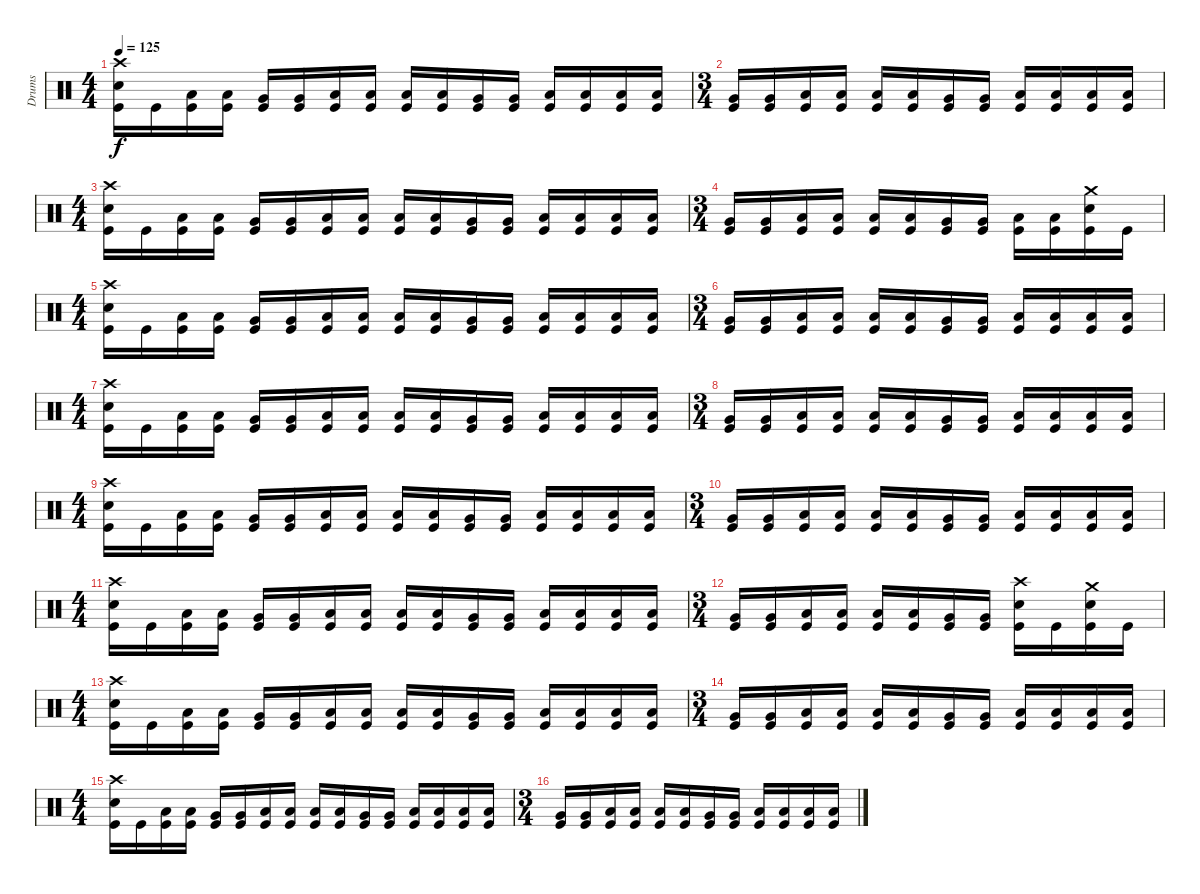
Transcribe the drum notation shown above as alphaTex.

\track ("Drums" "Drums") {instrument percussion}
\staff {score}
\articulation defaults
\ts (4 4)
\tempo 125
\clef neutral
\ks c
("Crash high (hit)" "Electric Snare (hit)" "Kick (hit)").16{dy f} "Kick (hit)".16 ("Low Tom (hit)" "Kick (hit)").16 ("Low Tom (hit)" "Kick (hit)").16 ("Very Low Tom (hit)" "Kick (hit)").16 ("Very Low Tom (hit)" "Kick (hit)").16 ("Low Floor Tom (hit)" "Kick (hit)").16 ("Low Floor Tom (hit)" "Kick (hit)").16 ("Low Tom (hit)" "Kick (hit)").16 ("Low Tom (hit)" "Kick (hit)").16 ("Very Low Tom (hit)" "Kick (hit)").16 ("Very Low Tom (hit)" "Kick (hit)").16 ("Low Floor Tom (hit)" "Kick (hit)").16 ("Low Floor Tom (hit)" "Kick (hit)").16 ("Low Tom (hit)" "Kick (hit)").16 ("Low Tom (hit)" "Kick (hit)").16 |
\ts (3 4)
("Very Low Tom (hit)" "Kick (hit)").16 ("Very Low Tom (hit)" "Kick (hit)").16 ("Low Floor Tom (hit)" "Kick (hit)").16 ("Low Floor Tom (hit)" "Kick (hit)").16 ("Low Tom (hit)" "Kick (hit)").16 ("Low Tom (hit)" "Kick (hit)").16 ("Very Low Tom (hit)" "Kick (hit)").16 ("Very Low Tom (hit)" "Kick (hit)").16 ("Low Floor Tom (hit)" "Kick (hit)").16 ("Low Floor Tom (hit)" "Kick (hit)").16 ("Low Floor Tom (hit)" "Kick (hit)").16 ("Low Floor Tom (hit)" "Kick (hit)").16 |
\ts (4 4)
("Crash high (hit)" "Electric Snare (hit)" "Kick (hit)").16 "Kick (hit)".16 ("Low Tom (hit)" "Kick (hit)").16 ("Low Tom (hit)" "Kick (hit)").16 ("Very Low Tom (hit)" "Kick (hit)").16 ("Very Low Tom (hit)" "Kick (hit)").16 ("Low Floor Tom (hit)" "Kick (hit)").16 ("Low Floor Tom (hit)" "Kick (hit)").16 ("Low Tom (hit)" "Kick (hit)").16 ("Low Tom (hit)" "Kick (hit)").16 ("Very Low Tom (hit)" "Kick (hit)").16 ("Very Low Tom (hit)" "Kick (hit)").16 ("Low Floor Tom (hit)" "Kick (hit)").16 ("Low Floor Tom (hit)" "Kick (hit)").16 ("Low Tom (hit)" "Kick (hit)").16 ("Low Tom (hit)" "Kick (hit)").16 |
\ts (3 4)
("Very Low Tom (hit)" "Kick (hit)").16 ("Very Low Tom (hit)" "Kick (hit)").16 ("Low Floor Tom (hit)" "Kick (hit)").16 ("Low Floor Tom (hit)" "Kick (hit)").16 ("Low Tom (hit)" "Kick (hit)").16 ("Low Tom (hit)" "Kick (hit)").16 ("Very Low Tom (hit)" "Kick (hit)").16 ("Very Low Tom (hit)" "Kick (hit)").16 ("Low Floor Tom (hit)" "Kick (hit)").16 ("Low Floor Tom (hit)" "Kick (hit)").16 ("Crash medium (hit)" "Electric Snare (hit)" "Kick (hit)").16 "Kick (hit)".16 |
\ts (4 4)
("Crash high (hit)" "Electric Snare (hit)" "Kick (hit)").16 "Kick (hit)".16 ("Low Tom (hit)" "Kick (hit)").16 ("Low Tom (hit)" "Kick (hit)").16 ("Very Low Tom (hit)" "Kick (hit)").16 ("Very Low Tom (hit)" "Kick (hit)").16 ("Low Floor Tom (hit)" "Kick (hit)").16 ("Low Floor Tom (hit)" "Kick (hit)").16 ("Low Tom (hit)" "Kick (hit)").16 ("Low Tom (hit)" "Kick (hit)").16 ("Very Low Tom (hit)" "Kick (hit)").16 ("Very Low Tom (hit)" "Kick (hit)").16 ("Low Floor Tom (hit)" "Kick (hit)").16 ("Low Floor Tom (hit)" "Kick (hit)").16 ("Low Tom (hit)" "Kick (hit)").16 ("Low Tom (hit)" "Kick (hit)").16 |
\ts (3 4)
("Very Low Tom (hit)" "Kick (hit)").16 ("Very Low Tom (hit)" "Kick (hit)").16 ("Low Floor Tom (hit)" "Kick (hit)").16 ("Low Floor Tom (hit)" "Kick (hit)").16 ("Low Tom (hit)" "Kick (hit)").16 ("Low Tom (hit)" "Kick (hit)").16 ("Very Low Tom (hit)" "Kick (hit)").16 ("Very Low Tom (hit)" "Kick (hit)").16 ("Low Floor Tom (hit)" "Kick (hit)").16 ("Low Floor Tom (hit)" "Kick (hit)").16 ("Low Floor Tom (hit)" "Kick (hit)").16 ("Low Floor Tom (hit)" "Kick (hit)").16 |
\ts (4 4)
("Crash high (hit)" "Electric Snare (hit)" "Kick (hit)").16 "Kick (hit)".16 ("Low Tom (hit)" "Kick (hit)").16 ("Low Tom (hit)" "Kick (hit)").16 ("Very Low Tom (hit)" "Kick (hit)").16 ("Very Low Tom (hit)" "Kick (hit)").16 ("Low Floor Tom (hit)" "Kick (hit)").16 ("Low Floor Tom (hit)" "Kick (hit)").16 ("Low Tom (hit)" "Kick (hit)").16 ("Low Tom (hit)" "Kick (hit)").16 ("Very Low Tom (hit)" "Kick (hit)").16 ("Very Low Tom (hit)" "Kick (hit)").16 ("Low Floor Tom (hit)" "Kick (hit)").16 ("Low Floor Tom (hit)" "Kick (hit)").16 ("Low Tom (hit)" "Kick (hit)").16 ("Low Tom (hit)" "Kick (hit)").16 |
\ts (3 4)
("Very Low Tom (hit)" "Kick (hit)").16 ("Very Low Tom (hit)" "Kick (hit)").16 ("Low Floor Tom (hit)" "Kick (hit)").16 ("Low Floor Tom (hit)" "Kick (hit)").16 ("Low Tom (hit)" "Kick (hit)").16 ("Low Tom (hit)" "Kick (hit)").16 ("Very Low Tom (hit)" "Kick (hit)").16 ("Very Low Tom (hit)" "Kick (hit)").16 ("Low Floor Tom (hit)" "Kick (hit)").16 ("Low Floor Tom (hit)" "Kick (hit)").16 ("Low Floor Tom (hit)" "Kick (hit)").16 ("Low Floor Tom (hit)" "Kick (hit)").16 |
\ts (4 4)
("Crash high (hit)" "Electric Snare (hit)" "Kick (hit)").16 "Kick (hit)".16 ("Low Tom (hit)" "Kick (hit)").16 ("Low Tom (hit)" "Kick (hit)").16 ("Very Low Tom (hit)" "Kick (hit)").16 ("Very Low Tom (hit)" "Kick (hit)").16 ("Low Floor Tom (hit)" "Kick (hit)").16 ("Low Floor Tom (hit)" "Kick (hit)").16 ("Low Tom (hit)" "Kick (hit)").16 ("Low Tom (hit)" "Kick (hit)").16 ("Very Low Tom (hit)" "Kick (hit)").16 ("Very Low Tom (hit)" "Kick (hit)").16 ("Low Floor Tom (hit)" "Kick (hit)").16 ("Low Floor Tom (hit)" "Kick (hit)").16 ("Low Tom (hit)" "Kick (hit)").16 ("Low Tom (hit)" "Kick (hit)").16 |
\ts (3 4)
("Very Low Tom (hit)" "Kick (hit)").16 ("Very Low Tom (hit)" "Kick (hit)").16 ("Low Floor Tom (hit)" "Kick (hit)").16 ("Low Floor Tom (hit)" "Kick (hit)").16 ("Low Tom (hit)" "Kick (hit)").16 ("Low Tom (hit)" "Kick (hit)").16 ("Very Low Tom (hit)" "Kick (hit)").16 ("Very Low Tom (hit)" "Kick (hit)").16 ("Low Floor Tom (hit)" "Kick (hit)").16 ("Low Floor Tom (hit)" "Kick (hit)").16 ("Low Floor Tom (hit)" "Kick (hit)").16 ("Low Floor Tom (hit)" "Kick (hit)").16 |
\ts (4 4)
("Crash high (hit)" "Electric Snare (hit)" "Kick (hit)").16 "Kick (hit)".16 ("Low Tom (hit)" "Kick (hit)").16 ("Low Tom (hit)" "Kick (hit)").16 ("Very Low Tom (hit)" "Kick (hit)").16 ("Very Low Tom (hit)" "Kick (hit)").16 ("Low Floor Tom (hit)" "Kick (hit)").16 ("Low Floor Tom (hit)" "Kick (hit)").16 ("Low Tom (hit)" "Kick (hit)").16 ("Low Tom (hit)" "Kick (hit)").16 ("Very Low Tom (hit)" "Kick (hit)").16 ("Very Low Tom (hit)" "Kick (hit)").16 ("Low Floor Tom (hit)" "Kick (hit)").16 ("Low Floor Tom (hit)" "Kick (hit)").16 ("Low Tom (hit)" "Kick (hit)").16 ("Low Tom (hit)" "Kick (hit)").16 |
\ts (3 4)
("Very Low Tom (hit)" "Kick (hit)").16 ("Very Low Tom (hit)" "Kick (hit)").16 ("Low Floor Tom (hit)" "Kick (hit)").16 ("Low Floor Tom (hit)" "Kick (hit)").16 ("Low Tom (hit)" "Kick (hit)").16 ("Low Tom (hit)" "Kick (hit)").16 ("Very Low Tom (hit)" "Kick (hit)").16 ("Very Low Tom (hit)" "Kick (hit)").16 ("Crash high (hit)" "Electric Snare (hit)" "Kick (hit)").16 "Kick (hit)".16 ("Crash medium (hit)" "Electric Snare (hit)" "Kick (hit)").16 "Kick (hit)".16 |
\ts (4 4)
("Crash high (hit)" "Electric Snare (hit)" "Kick (hit)").16 "Kick (hit)".16 ("Low Tom (hit)" "Kick (hit)").16 ("Low Tom (hit)" "Kick (hit)").16 ("Very Low Tom (hit)" "Kick (hit)").16 ("Very Low Tom (hit)" "Kick (hit)").16 ("Low Floor Tom (hit)" "Kick (hit)").16 ("Low Floor Tom (hit)" "Kick (hit)").16 ("Low Tom (hit)" "Kick (hit)").16 ("Low Tom (hit)" "Kick (hit)").16 ("Very Low Tom (hit)" "Kick (hit)").16 ("Very Low Tom (hit)" "Kick (hit)").16 ("Low Floor Tom (hit)" "Kick (hit)").16 ("Low Floor Tom (hit)" "Kick (hit)").16 ("Low Tom (hit)" "Kick (hit)").16 ("Low Tom (hit)" "Kick (hit)").16 |
\ts (3 4)
("Very Low Tom (hit)" "Kick (hit)").16 ("Very Low Tom (hit)" "Kick (hit)").16 ("Low Floor Tom (hit)" "Kick (hit)").16 ("Low Floor Tom (hit)" "Kick (hit)").16 ("Low Tom (hit)" "Kick (hit)").16 ("Low Tom (hit)" "Kick (hit)").16 ("Very Low Tom (hit)" "Kick (hit)").16 ("Very Low Tom (hit)" "Kick (hit)").16 ("Low Floor Tom (hit)" "Kick (hit)").16 ("Low Floor Tom (hit)" "Kick (hit)").16 ("Low Floor Tom (hit)" "Kick (hit)").16 ("Low Floor Tom (hit)" "Kick (hit)").16 |
\ts (4 4)
("Crash high (hit)" "Electric Snare (hit)" "Kick (hit)").16 "Kick (hit)".16 ("Low Tom (hit)" "Kick (hit)").16 ("Low Tom (hit)" "Kick (hit)").16 ("Very Low Tom (hit)" "Kick (hit)").16 ("Very Low Tom (hit)" "Kick (hit)").16 ("Low Floor Tom (hit)" "Kick (hit)").16 ("Low Floor Tom (hit)" "Kick (hit)").16 ("Low Tom (hit)" "Kick (hit)").16 ("Low Tom (hit)" "Kick (hit)").16 ("Very Low Tom (hit)" "Kick (hit)").16 ("Very Low Tom (hit)" "Kick (hit)").16 ("Low Floor Tom (hit)" "Kick (hit)").16 ("Low Floor Tom (hit)" "Kick (hit)").16 ("Low Tom (hit)" "Kick (hit)").16 ("Low Tom (hit)" "Kick (hit)").16 |
\ts (3 4)
("Very Low Tom (hit)" "Kick (hit)").16 ("Very Low Tom (hit)" "Kick (hit)").16 ("Low Floor Tom (hit)" "Kick (hit)").16 ("Low Floor Tom (hit)" "Kick (hit)").16 ("Low Tom (hit)" "Kick (hit)").16 ("Low Tom (hit)" "Kick (hit)").16 ("Very Low Tom (hit)" "Kick (hit)").16 ("Very Low Tom (hit)" "Kick (hit)").16 ("Low Floor Tom (hit)" "Kick (hit)").16 ("Low Floor Tom (hit)" "Kick (hit)").16 ("Low Floor Tom (hit)" "Kick (hit)").16 ("Low Floor Tom (hit)" "Kick (hit)").16
